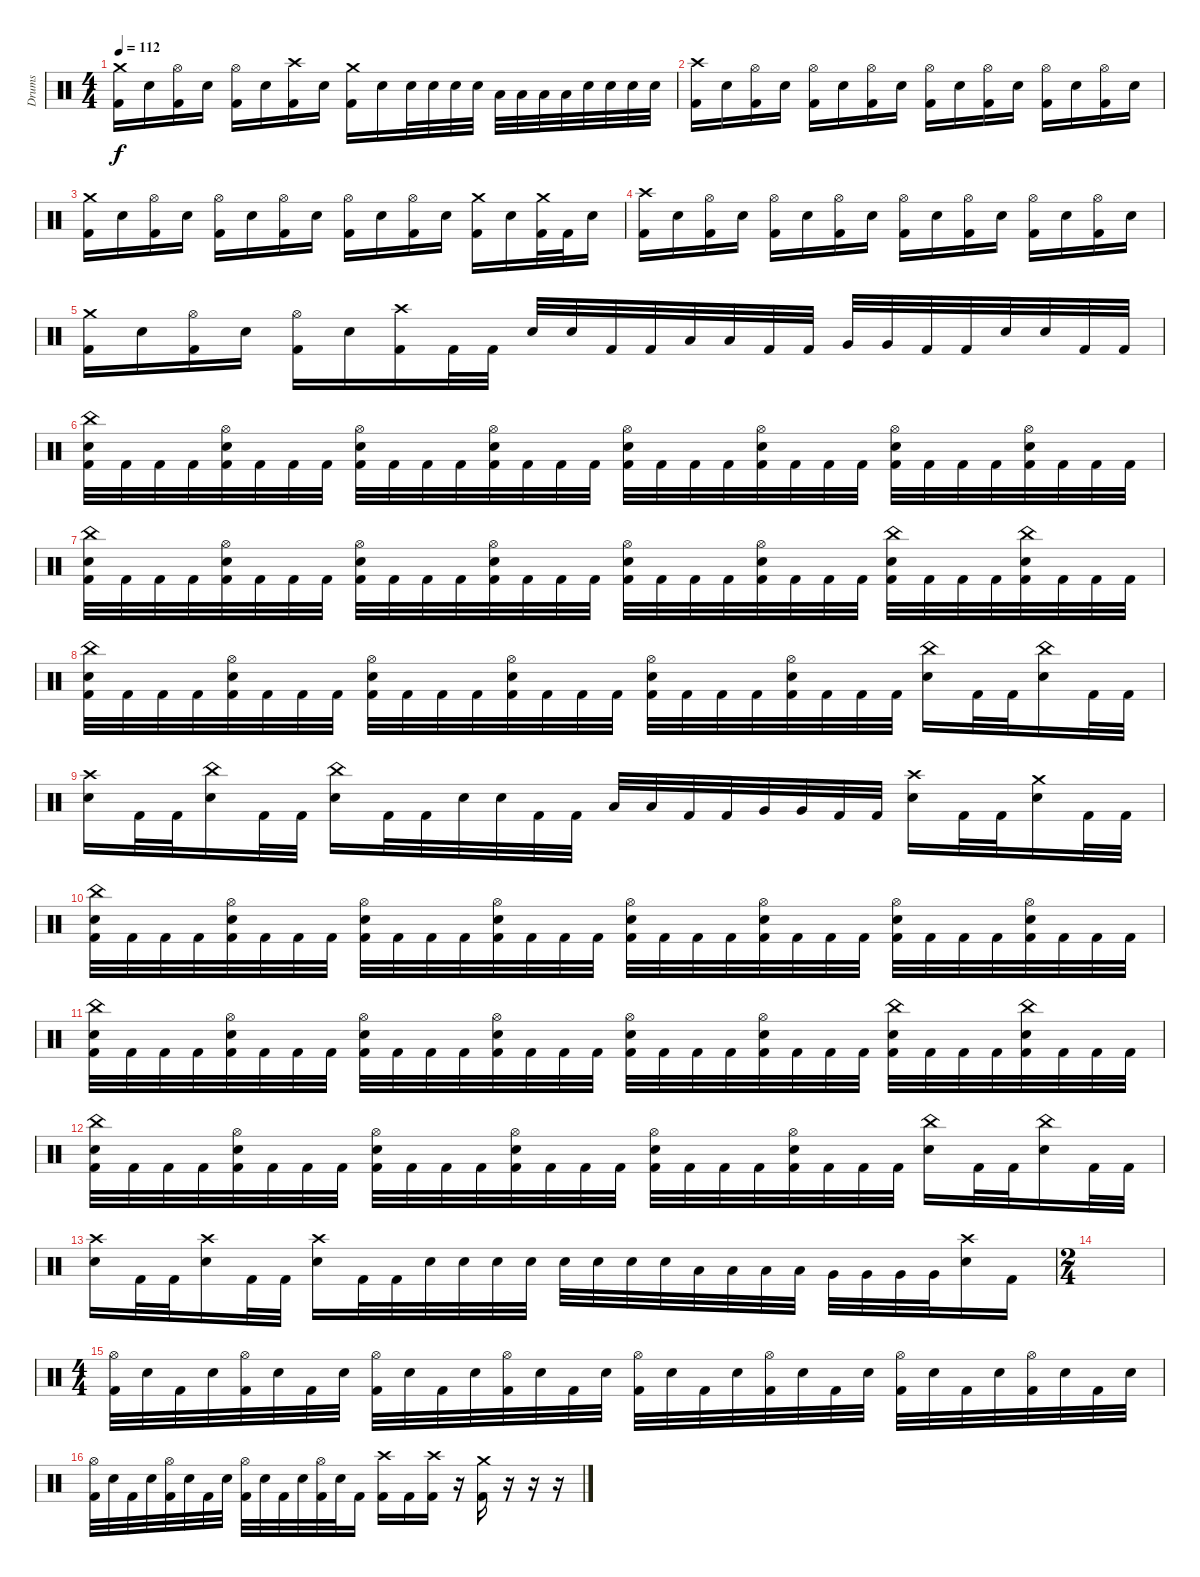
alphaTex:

\track ("Drums" "Drums") {instrument percussion}
\staff {score}
\articulation defaults
\ts (4 4)
\tempo 112
\clef neutral
\ks c
("Crash medium (hit)" "Kick (hit) 2").16{dy f} "Snare (hit) 2".16 ("Hi-Hat (open)" "Kick (hit) 2").16 "Snare (hit) 2".16 ("Hi-Hat (open)" "Kick (hit) 2").16 "Snare (hit) 2".16 ("Crash high (hit)" "Kick (hit) 2").16 "Snare (hit) 2".16 ("Crash medium (hit)" "Kick (hit) 2").16 "Snare (hit) 2".16 "Snare (hit) 2".32 "Snare (hit) 2".32 "Snare (hit) 2".32 "Snare (hit) 2".32 "Low Tom (hit)".32 "Low Tom (hit)".32 "Low Tom (hit)".32 "Low Tom (hit)".32 "Snare (hit) 2".32 "Snare (hit) 2".32 "Snare (hit) 2".32 "Snare (hit) 2".32 |
("Crash high (hit)" "Kick (hit) 2").16 "Snare (hit) 2".16 ("Hi-Hat (open)" "Kick (hit) 2").16 "Snare (hit) 2".16 ("Hi-Hat (open)" "Kick (hit) 2").16 "Snare (hit) 2".16 ("Hi-Hat (open)" "Kick (hit) 2").16 "Snare (hit) 2".16 ("Hi-Hat (open)" "Kick (hit) 2").16 "Snare (hit) 2".16 ("Hi-Hat (open)" "Kick (hit) 2").16 "Snare (hit) 2".16 ("Hi-Hat (open)" "Kick (hit) 2").16 "Snare (hit) 2".16 ("Hi-Hat (open)" "Kick (hit) 2").16 "Snare (hit) 2".16 |
("Crash medium (hit)" "Kick (hit) 2").16 "Snare (hit) 2".16 ("Hi-Hat (open)" "Kick (hit) 2").16 "Snare (hit) 2".16 ("Hi-Hat (open)" "Kick (hit) 2").16 "Snare (hit) 2".16 ("Hi-Hat (open)" "Kick (hit) 2").16 "Snare (hit) 2".16 ("Hi-Hat (open)" "Kick (hit) 2").16 "Snare (hit) 2".16 ("Hi-Hat (open)" "Kick (hit) 2").16 "Snare (hit) 2".16 ("Crash medium (hit)" "Kick (hit) 2").16 "Snare (hit) 2".16 ("Crash medium (hit)" "Kick (hit) 2").32 "Kick (hit) 2".32 "Snare (hit) 2".16 |
("Crash high (hit)" "Kick (hit) 2").16 "Snare (hit) 2".16 ("Hi-Hat (open)" "Kick (hit) 2").16 "Snare (hit) 2".16 ("Hi-Hat (open)" "Kick (hit) 2").16 "Snare (hit) 2".16 ("Hi-Hat (open)" "Kick (hit) 2").16 "Snare (hit) 2".16 ("Hi-Hat (open)" "Kick (hit) 2").16 "Snare (hit) 2".16 ("Hi-Hat (open)" "Kick (hit) 2").16 "Snare (hit) 2".16 ("Hi-Hat (open)" "Kick (hit) 2").16 "Snare (hit) 2".16 ("Hi-Hat (open)" "Kick (hit) 2").16 "Snare (hit) 2".16 |
("Crash medium (hit)" "Kick (hit) 2").16 "Snare (hit) 2".16 ("Hi-Hat (open)" "Kick (hit) 2").16 "Snare (hit) 2".16 ("Hi-Hat (open)" "Kick (hit) 2").16 "Snare (hit) 2".16 ("Crash high (hit)" "Kick (hit) 2").16 "Kick (hit) 2".32 "Kick (hit) 2".32 "Snare (hit) 2".32 "Snare (hit) 2".32 "Kick (hit) 2".32 "Kick (hit) 2".32 "Low Tom (hit)".32 "Low Tom (hit)".32 "Kick (hit) 2".32 "Kick (hit) 2".32 "Very Low Tom (hit)".32 "Very Low Tom (hit)".32 "Kick (hit) 2".32 "Kick (hit) 2".32 "Snare (hit) 2".32 "Snare (hit) 2".32 "Kick (hit) 2".32 "Kick (hit) 2".32 |
("China (hit)" "Snare (hit) 2" "Kick (hit) 2").32 "Kick (hit) 2".32 "Kick (hit) 2".32 "Kick (hit) 2".32 ("Hi-Hat (open)" "Snare (hit) 2" "Kick (hit) 2").32 "Kick (hit) 2".32 "Kick (hit) 2".32 "Kick (hit) 2".32 ("Hi-Hat (open)" "Snare (hit) 2" "Kick (hit) 2").32 "Kick (hit) 2".32 "Kick (hit) 2".32 "Kick (hit) 2".32 ("Hi-Hat (open)" "Snare (hit) 2" "Kick (hit) 2").32 "Kick (hit) 2".32 "Kick (hit) 2".32 "Kick (hit) 2".32 ("Hi-Hat (open)" "Snare (hit) 2" "Kick (hit) 2").32 "Kick (hit) 2".32 "Kick (hit) 2".32 "Kick (hit) 2".32 ("Hi-Hat (open)" "Snare (hit) 2" "Kick (hit) 2").32 "Kick (hit) 2".32 "Kick (hit) 2".32 "Kick (hit) 2".32 ("Hi-Hat (open)" "Snare (hit) 2" "Kick (hit) 2").32 "Kick (hit) 2".32 "Kick (hit) 2".32 "Kick (hit) 2".32 ("Hi-Hat (open)" "Snare (hit) 2" "Kick (hit) 2").32 "Kick (hit) 2".32 "Kick (hit) 2".32 "Kick (hit) 2".32 |
("China (hit)" "Snare (hit) 2" "Kick (hit) 2").32 "Kick (hit) 2".32 "Kick (hit) 2".32 "Kick (hit) 2".32 ("Hi-Hat (open)" "Snare (hit) 2" "Kick (hit) 2").32 "Kick (hit) 2".32 "Kick (hit) 2".32 "Kick (hit) 2".32 ("Hi-Hat (open)" "Snare (hit) 2" "Kick (hit) 2").32 "Kick (hit) 2".32 "Kick (hit) 2".32 "Kick (hit) 2".32 ("Hi-Hat (open)" "Snare (hit) 2" "Kick (hit) 2").32 "Kick (hit) 2".32 "Kick (hit) 2".32 "Kick (hit) 2".32 ("Hi-Hat (open)" "Snare (hit) 2" "Kick (hit) 2").32 "Kick (hit) 2".32 "Kick (hit) 2".32 "Kick (hit) 2".32 ("Hi-Hat (open)" "Snare (hit) 2" "Kick (hit) 2").32 "Kick (hit) 2".32 "Kick (hit) 2".32 "Kick (hit) 2".32 ("China (hit)" "Snare (hit) 2" "Kick (hit) 2").32 "Kick (hit) 2".32 "Kick (hit) 2".32 "Kick (hit) 2".32 ("China (hit)" "Snare (hit) 2" "Kick (hit) 2").32 "Kick (hit) 2".32 "Kick (hit) 2".32 "Kick (hit) 2".32 |
("China (hit)" "Snare (hit) 2" "Kick (hit) 2").32 "Kick (hit) 2".32 "Kick (hit) 2".32 "Kick (hit) 2".32 ("Hi-Hat (open)" "Snare (hit) 2" "Kick (hit) 2").32 "Kick (hit) 2".32 "Kick (hit) 2".32 "Kick (hit) 2".32 ("Hi-Hat (open)" "Snare (hit) 2" "Kick (hit) 2").32 "Kick (hit) 2".32 "Kick (hit) 2".32 "Kick (hit) 2".32 ("Hi-Hat (open)" "Snare (hit) 2" "Kick (hit) 2").32 "Kick (hit) 2".32 "Kick (hit) 2".32 "Kick (hit) 2".32 ("Hi-Hat (open)" "Snare (hit) 2" "Kick (hit) 2").32 "Kick (hit) 2".32 "Kick (hit) 2".32 "Kick (hit) 2".32 ("Hi-Hat (open)" "Snare (hit) 2" "Kick (hit) 2").32 "Kick (hit) 2".32 "Kick (hit) 2".32 "Kick (hit) 2".32 ("China (hit)" "Snare (hit) 2").16 "Kick (hit) 2".32 "Kick (hit) 2".32 ("China (hit)" "Snare (hit) 2").16 "Kick (hit) 2".32 "Kick (hit) 2".32 |
("Crash high (hit)" "Snare (hit) 2").16 "Kick (hit) 2".32 "Kick (hit) 2".32 ("China (hit)" "Snare (hit) 2").16 "Kick (hit) 2".32 "Kick (hit) 2".32 ("China (hit)" "Snare (hit) 2").16 "Kick (hit) 2".32 "Kick (hit) 2".32 "Snare (hit) 2".32 "Snare (hit) 2".32 "Kick (hit) 2".32 "Kick (hit) 2".32 "Low Tom (hit)".32 "Low Tom (hit)".32 "Kick (hit) 2".32 "Kick (hit) 2".32 "Very Low Tom (hit)".32 "Very Low Tom (hit)".32 "Kick (hit) 2".32 "Kick (hit) 2".32 ("Crash high (hit)" "Snare (hit) 2").16 "Kick (hit) 2".32 "Kick (hit) 2".32 ("Crash medium (hit)" "Snare (hit) 2").16 "Kick (hit) 2".32 "Kick (hit) 2".32 |
("China (hit)" "Snare (hit) 2" "Kick (hit) 2").32 "Kick (hit) 2".32 "Kick (hit) 2".32 "Kick (hit) 2".32 ("Hi-Hat (open)" "Snare (hit) 2" "Kick (hit) 2").32 "Kick (hit) 2".32 "Kick (hit) 2".32 "Kick (hit) 2".32 ("Hi-Hat (open)" "Snare (hit) 2" "Kick (hit) 2").32 "Kick (hit) 2".32 "Kick (hit) 2".32 "Kick (hit) 2".32 ("Hi-Hat (open)" "Snare (hit) 2" "Kick (hit) 2").32 "Kick (hit) 2".32 "Kick (hit) 2".32 "Kick (hit) 2".32 ("Hi-Hat (open)" "Snare (hit) 2" "Kick (hit) 2").32 "Kick (hit) 2".32 "Kick (hit) 2".32 "Kick (hit) 2".32 ("Hi-Hat (open)" "Snare (hit) 2" "Kick (hit) 2").32 "Kick (hit) 2".32 "Kick (hit) 2".32 "Kick (hit) 2".32 ("Hi-Hat (open)" "Snare (hit) 2" "Kick (hit) 2").32 "Kick (hit) 2".32 "Kick (hit) 2".32 "Kick (hit) 2".32 ("Hi-Hat (open)" "Snare (hit) 2" "Kick (hit) 2").32 "Kick (hit) 2".32 "Kick (hit) 2".32 "Kick (hit) 2".32 |
("China (hit)" "Snare (hit) 2" "Kick (hit) 2").32 "Kick (hit) 2".32 "Kick (hit) 2".32 "Kick (hit) 2".32 ("Hi-Hat (open)" "Snare (hit) 2" "Kick (hit) 2").32 "Kick (hit) 2".32 "Kick (hit) 2".32 "Kick (hit) 2".32 ("Hi-Hat (open)" "Snare (hit) 2" "Kick (hit) 2").32 "Kick (hit) 2".32 "Kick (hit) 2".32 "Kick (hit) 2".32 ("Hi-Hat (open)" "Snare (hit) 2" "Kick (hit) 2").32 "Kick (hit) 2".32 "Kick (hit) 2".32 "Kick (hit) 2".32 ("Hi-Hat (open)" "Snare (hit) 2" "Kick (hit) 2").32 "Kick (hit) 2".32 "Kick (hit) 2".32 "Kick (hit) 2".32 ("Hi-Hat (open)" "Snare (hit) 2" "Kick (hit) 2").32 "Kick (hit) 2".32 "Kick (hit) 2".32 "Kick (hit) 2".32 ("China (hit)" "Snare (hit) 2" "Kick (hit) 2").32 "Kick (hit) 2".32 "Kick (hit) 2".32 "Kick (hit) 2".32 ("China (hit)" "Snare (hit) 2" "Kick (hit) 2").32 "Kick (hit) 2".32 "Kick (hit) 2".32 "Kick (hit) 2".32 |
("China (hit)" "Snare (hit) 2" "Kick (hit) 2").32 "Kick (hit) 2".32 "Kick (hit) 2".32 "Kick (hit) 2".32 ("Hi-Hat (open)" "Snare (hit) 2" "Kick (hit) 2").32 "Kick (hit) 2".32 "Kick (hit) 2".32 "Kick (hit) 2".32 ("Hi-Hat (open)" "Snare (hit) 2" "Kick (hit) 2").32 "Kick (hit) 2".32 "Kick (hit) 2".32 "Kick (hit) 2".32 ("Hi-Hat (open)" "Snare (hit) 2" "Kick (hit) 2").32 "Kick (hit) 2".32 "Kick (hit) 2".32 "Kick (hit) 2".32 ("Hi-Hat (open)" "Snare (hit) 2" "Kick (hit) 2").32 "Kick (hit) 2".32 "Kick (hit) 2".32 "Kick (hit) 2".32 ("Hi-Hat (open)" "Snare (hit) 2" "Kick (hit) 2").32 "Kick (hit) 2".32 "Kick (hit) 2".32 "Kick (hit) 2".32 ("China (hit)" "Snare (hit) 2").16 "Kick (hit) 2".32 "Kick (hit) 2".32 ("China (hit)" "Snare (hit) 2").16 "Kick (hit) 2".32 "Kick (hit) 2".32 |
("Crash high (hit)" "Snare (hit) 2").16 "Kick (hit) 2".32 "Kick (hit) 2".32 ("Crash high (hit)" "Snare (hit) 2").16 "Kick (hit) 2".32 "Kick (hit) 2".32 ("Crash high (hit)" "Snare (hit) 2").16 "Kick (hit) 2".32 "Kick (hit) 2".32 "Snare (hit) 2".32 "Snare (hit) 2".32 "Snare (hit) 2".32 "Snare (hit) 2".32 "Snare (hit) 2".32 "Snare (hit) 2".32 "Snare (hit) 2".32 "Snare (hit) 2".32 "Low Tom (hit)".32 "Low Tom (hit)".32 "Low Tom (hit)".32 "Low Tom (hit)".32 "Very Low Tom (hit)".32 "Very Low Tom (hit)".32 "Very Low Tom (hit)".32 "Very Low Tom (hit)".32 ("Crash high (hit)" "Snare (hit) 2").16 "Kick (hit) 2".16 |
\ts (2 4)
|
\ts (4 4)
("Hi-Hat (open)" "Kick (hit) 2").32 "Snare (hit) 2".32 "Kick (hit) 2".32 "Snare (hit) 2".32 ("Hi-Hat (open)" "Kick (hit) 2").32 "Snare (hit) 2".32 "Kick (hit) 2".32 "Snare (hit) 2".32 ("Hi-Hat (open)" "Kick (hit) 2").32 "Snare (hit) 2".32 "Kick (hit) 2".32 "Snare (hit) 2".32 ("Hi-Hat (open)" "Kick (hit) 2").32 "Snare (hit) 2".32 "Kick (hit) 2".32 "Snare (hit) 2".32 ("Hi-Hat (open)" "Kick (hit) 2").32 "Snare (hit) 2".32 "Kick (hit) 2".32 "Snare (hit) 2".32 ("Hi-Hat (open)" "Kick (hit) 2").32 "Snare (hit) 2".32 "Kick (hit) 2".32 "Snare (hit) 2".32 ("Hi-Hat (open)" "Kick (hit) 2").32 "Snare (hit) 2".32 "Kick (hit) 2".32 "Snare (hit) 2".32 ("Hi-Hat (open)" "Kick (hit) 2").32 "Snare (hit) 2".32 "Kick (hit) 2".32 "Snare (hit) 2".32 |
("Hi-Hat (open)" "Kick (hit) 2").32 "Snare (hit) 2".32 "Kick (hit) 2".32 "Snare (hit) 2".32 ("Hi-Hat (open)" "Kick (hit) 2").32 "Snare (hit) 2".32 "Kick (hit) 2".32 "Snare (hit) 2".32 ("Hi-Hat (open)" "Kick (hit) 2").32 "Snare (hit) 2".32 "Kick (hit) 2".32 "Snare (hit) 2".32 ("Hi-Hat (open)" "Kick (hit) 2").32 "Snare (hit) 2".32 "Kick (hit) 2".16 ("Crash high (hit)" "Kick (hit) 2").16 "Kick (hit) 2".16 ("Crash high (hit)" "Kick (hit) 2").16 r.16 ("Crash medium (hit)" "Kick (hit) 2").16 r.16 r.16 r.16
